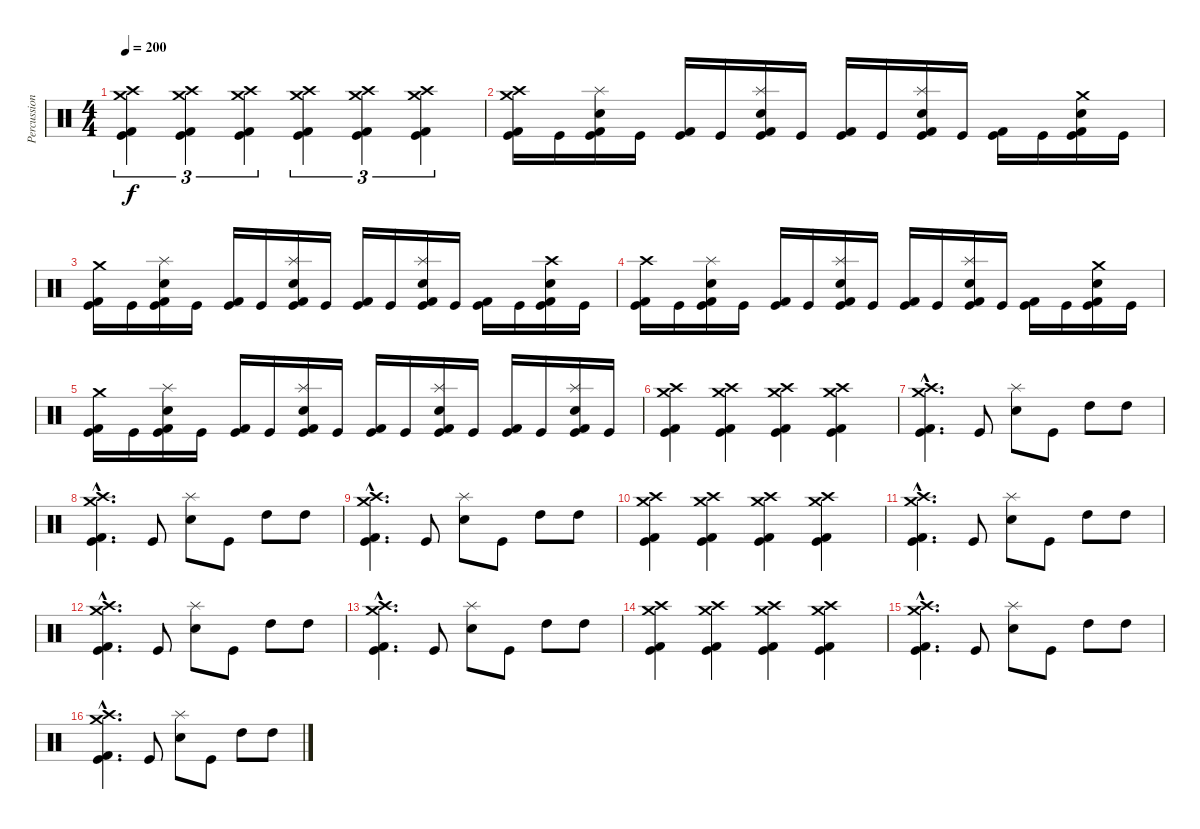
\track ("Percussion" "Percussion") {instrument percussion}
\staff {score}
\articulation defaults
\ts (4 4)
\tempo 200
\clef neutral
\ks c
("Crash high (hit)" "Crash medium (hit)" "Kick (hit) 2" "Kick (hit)").4{tu (3 2) dy f} ("Crash high (hit)" "Crash medium (hit)" "Kick (hit) 2" "Kick (hit)").4{tu (3 2)} ("Crash high (hit)" "Crash medium (hit)" "Kick (hit) 2" "Kick (hit)").4{tu (3 2)} ("Crash high (hit)" "Crash medium (hit)" "Kick (hit) 2" "Kick (hit)").4{tu (3 2)} ("Crash high (hit)" "Crash medium (hit)" "Kick (hit) 2" "Kick (hit)").4{tu (3 2)} ("Crash high (hit)" "Crash medium (hit)" "Kick (hit) 2" "Kick (hit)").4{tu (3 2)} |
("Crash high (hit)" "Crash medium (hit)" "Kick (hit) 2" "Kick (hit)").16 "Kick (hit)".16 ("Splash (hit)" "Snare (hit) 2" "Kick (hit) 2" "Kick (hit)").16 "Kick (hit)".16 ("Kick (hit) 2" "Kick (hit)").16 "Kick (hit)".16 ("Splash (hit)" "Snare (hit) 2" "Kick (hit) 2" "Kick (hit)").16 "Kick (hit)".16 ("Kick (hit) 2" "Kick (hit)").16 "Kick (hit)".16 ("Splash (hit)" "Snare (hit) 2" "Kick (hit) 2" "Kick (hit)").16 "Kick (hit)".16 ("Kick (hit) 2" "Kick (hit)").16 "Kick (hit)".16 ("Crash medium (hit)" "Snare (hit) 2" "Kick (hit) 2" "Kick (hit)").16 "Kick (hit)".16 |
("Crash medium (hit)" "Kick (hit) 2" "Kick (hit)").16 "Kick (hit)".16 ("Splash (hit)" "Snare (hit) 2" "Kick (hit) 2" "Kick (hit)").16 "Kick (hit)".16 ("Kick (hit) 2" "Kick (hit)").16 "Kick (hit)".16 ("Splash (hit)" "Snare (hit) 2" "Kick (hit) 2" "Kick (hit)").16 "Kick (hit)".16 ("Kick (hit) 2" "Kick (hit)").16 "Kick (hit)".16 ("Splash (hit)" "Snare (hit) 2" "Kick (hit) 2" "Kick (hit)").16 "Kick (hit)".16 ("Kick (hit) 2" "Kick (hit)").16 "Kick (hit)".16 ("Crash high (hit)" "Snare (hit) 2" "Kick (hit) 2" "Kick (hit)").16 "Kick (hit)".16 |
("Crash high (hit)" "Kick (hit) 2" "Kick (hit)").16 "Kick (hit)".16 ("Splash (hit)" "Snare (hit) 2" "Kick (hit) 2" "Kick (hit)").16 "Kick (hit)".16 ("Kick (hit) 2" "Kick (hit)").16 "Kick (hit)".16 ("Splash (hit)" "Snare (hit) 2" "Kick (hit) 2" "Kick (hit)").16 "Kick (hit)".16 ("Kick (hit) 2" "Kick (hit)").16 "Kick (hit)".16 ("Splash (hit)" "Snare (hit) 2" "Kick (hit) 2" "Kick (hit)").16 "Kick (hit)".16 ("Kick (hit) 2" "Kick (hit)").16 "Kick (hit)".16 ("Crash medium (hit)" "Snare (hit) 2" "Kick (hit) 2" "Kick (hit)").16 "Kick (hit)".16 |
("Crash medium (hit)" "Kick (hit) 2" "Kick (hit)").16 "Kick (hit)".16 ("Splash (hit)" "Snare (hit) 2" "Kick (hit) 2" "Kick (hit)").16 "Kick (hit)".16 ("Kick (hit) 2" "Kick (hit)").16 "Kick (hit)".16 ("Splash (hit)" "Snare (hit) 2" "Kick (hit) 2" "Kick (hit)").16 "Kick (hit)".16 ("Kick (hit) 2" "Kick (hit)").16 "Kick (hit)".16 ("Splash (hit)" "Snare (hit) 2" "Kick (hit) 2" "Kick (hit)").16 "Kick (hit)".16 ("Kick (hit) 2" "Kick (hit)").16 "Kick (hit)".16 ("Splash (hit)" "Snare (hit) 2" "Kick (hit) 2" "Kick (hit)").16 "Kick (hit)".16 |
("Crash high (hit)" "Crash medium (hit)" "Kick (hit) 2" "Kick (hit)").4 ("Crash high (hit)" "Crash medium (hit)" "Kick (hit) 2" "Kick (hit)").4 ("Crash high (hit)" "Crash medium (hit)" "Kick (hit) 2" "Kick (hit)").4 ("Crash high (hit)" "Crash medium (hit)" "Kick (hit) 2" "Kick (hit)").4 |
("Crash high (hit)"{hac} "Crash medium (hit)"{hac} "Kick (hit) 2"{hac} "Kick (hit)"{hac}).4{d} "Kick (hit)".8 ("Splash (hit)" "Snare (hit) 2").8 "Kick (hit)".8 "High Tom (hit)".8 "High Tom (hit)".8 |
("Crash high (hit)"{hac} "Crash medium (hit)"{hac} "Kick (hit) 2"{hac} "Kick (hit)"{hac}).4{d} "Kick (hit)".8 ("Splash (hit)" "Snare (hit) 2").8 "Kick (hit)".8 "High Tom (hit)".8 "High Tom (hit)".8 |
("Crash high (hit)"{hac} "Crash medium (hit)"{hac} "Kick (hit) 2"{hac} "Kick (hit)"{hac}).4{d} "Kick (hit)".8 ("Splash (hit)" "Snare (hit) 2").8 "Kick (hit)".8 "High Tom (hit)".8 "High Tom (hit)".8 |
("Crash high (hit)" "Crash medium (hit)" "Kick (hit) 2" "Kick (hit)").4 ("Crash high (hit)" "Crash medium (hit)" "Kick (hit) 2" "Kick (hit)").4 ("Crash high (hit)" "Crash medium (hit)" "Kick (hit) 2" "Kick (hit)").4 ("Crash high (hit)" "Crash medium (hit)" "Kick (hit) 2" "Kick (hit)").4 |
("Crash high (hit)"{hac} "Crash medium (hit)"{hac} "Kick (hit) 2"{hac} "Kick (hit)"{hac}).4{d} "Kick (hit)".8 ("Splash (hit)" "Snare (hit) 2").8 "Kick (hit)".8 "High Tom (hit)".8 "High Tom (hit)".8 |
("Crash high (hit)"{hac} "Crash medium (hit)"{hac} "Kick (hit) 2"{hac} "Kick (hit)"{hac}).4{d} "Kick (hit)".8 ("Splash (hit)" "Snare (hit) 2").8 "Kick (hit)".8 "High Tom (hit)".8 "High Tom (hit)".8 |
("Crash high (hit)"{hac} "Crash medium (hit)"{hac} "Kick (hit) 2"{hac} "Kick (hit)"{hac}).4{d} "Kick (hit)".8 ("Splash (hit)" "Snare (hit) 2").8 "Kick (hit)".8 "High Tom (hit)".8 "High Tom (hit)".8 |
("Crash high (hit)" "Crash medium (hit)" "Kick (hit) 2" "Kick (hit)").4 ("Crash high (hit)" "Crash medium (hit)" "Kick (hit) 2" "Kick (hit)").4 ("Crash high (hit)" "Crash medium (hit)" "Kick (hit) 2" "Kick (hit)").4 ("Crash high (hit)" "Crash medium (hit)" "Kick (hit) 2" "Kick (hit)").4 |
("Crash high (hit)"{hac} "Crash medium (hit)"{hac} "Kick (hit) 2"{hac} "Kick (hit)"{hac}).4{d} "Kick (hit)".8 ("Splash (hit)" "Snare (hit) 2").8 "Kick (hit)".8 "High Tom (hit)".8 "High Tom (hit)".8 |
("Crash high (hit)"{hac} "Crash medium (hit)"{hac} "Kick (hit) 2"{hac} "Kick (hit)"{hac}).4{d} "Kick (hit)".8 ("Splash (hit)" "Snare (hit) 2").8 "Kick (hit)".8 "High Tom (hit)".8 "High Tom (hit)".8
